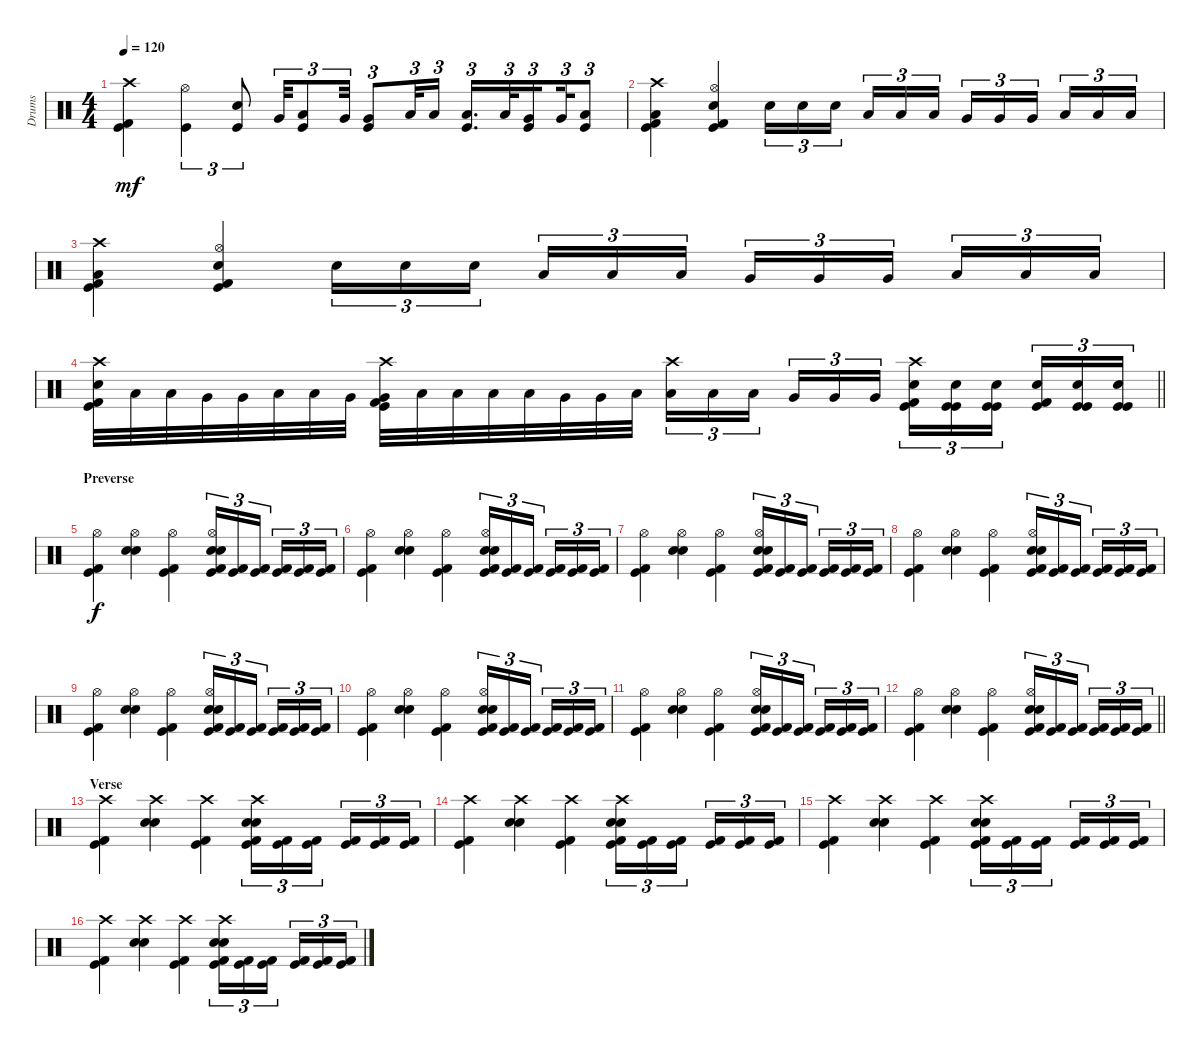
\track ("Drums" "Drums") {instrument percussion}
\staff {score}
\articulation defaults
\ts (4 4)
\tempo 120
\clef neutral
\ks c
("Crash high (hit)" "Kick (hit)" "Kick (hit) 2").4{dy mf} ("Hi-Hat (open)" "Kick (hit)").4{tu (3 2)} ("Electric Snare (hit)" "Kick (hit)").8{tu (3 2)} "Very Low Tom (hit)".32{tu (3 2)} ("Low Tom (hit)" "Kick (hit)").8{tu (3 2)} "Very Low Tom (hit)".32{tu (3 2)} ("Very Low Tom (hit)" "Kick (hit)").8{tu (3 2)} "Low Tom (hit)".32{tu (3 2)} "Low Floor Tom (hit)".16{tu (3 2)} ("Low Tom (hit)" "Kick (hit)").16{d tu (3 2)} "Low Floor Tom (hit)".32{tu (3 2)} ("Very Low Tom (hit)" "Kick (hit)").16{tu (3 2) beam splitsecondary} "Very Low Tom (hit)".32{tu (3 2)} ("Low Floor Tom (hit)" "Kick (hit)").8{tu (3 2)} |
("Crash high (hit)" "Low Floor Tom (hit)" "Kick (hit) 2" "Kick (hit)").4 ("Hi-Hat (open)" "Electric Snare (hit)" "Kick (hit)" "Kick (hit) 2").4 "Electric Snare (hit)".16{tu (3 2)} "Electric Snare (hit)".16{tu (3 2)} "Electric Snare (hit)".16{tu (3 2) beam splitsecondary} "Low Tom (hit)".16{tu (3 2)} "Low Tom (hit)".16{tu (3 2)} "Low Tom (hit)".16{tu (3 2)} "Very Low Tom (hit)".16{tu (3 2)} "Very Low Tom (hit)".16{tu (3 2)} "Very Low Tom (hit)".16{tu (3 2) beam splitsecondary} "Low Floor Tom (hit)".16{tu (3 2)} "Low Floor Tom (hit)".16{tu (3 2)} "Low Floor Tom (hit)".16{tu (3 2)} |
("Crash high (hit)" "Low Floor Tom (hit)" "Kick (hit) 2" "Kick (hit)").4 ("Hi-Hat (open)" "Electric Snare (hit)" "Kick (hit)" "Kick (hit) 2").4 "Electric Snare (hit)".16{tu (3 2)} "Electric Snare (hit)".16{tu (3 2)} "Electric Snare (hit)".16{tu (3 2) beam splitsecondary} "Low Tom (hit)".16{tu (3 2)} "Low Tom (hit)".16{tu (3 2)} "Low Tom (hit)".16{tu (3 2)} "Very Low Tom (hit)".16{tu (3 2)} "Very Low Tom (hit)".16{tu (3 2)} "Very Low Tom (hit)".16{tu (3 2) beam splitsecondary} "Low Floor Tom (hit)".16{tu (3 2)} "Low Floor Tom (hit)".16{tu (3 2)} "Low Floor Tom (hit)".16{tu (3 2)} |
\barLineRight lightlight
("Crash high (hit)" "Electric Snare (hit)" "Kick (hit)" "Kick (hit) 2").32 "Low Tom (hit)".32 "Low Tom (hit)".32 "Very Low Tom (hit)".32 "Very Low Tom (hit)".32 "Low Floor Tom (hit)".32 "Low Floor Tom (hit)".32 "Very Low Tom (hit)".32 ("Crash high (hit)" "Very Low Tom (hit)" "Kick (hit)" "Kick (hit) 2").32 "Low Floor Tom (hit)".32 "Low Floor Tom (hit)".32 "Low Tom (hit)".32 "Low Tom (hit)".32 "Very Low Tom (hit)".32 "Very Low Tom (hit)".32 "Low Floor Tom (hit)".32 ("Crash high (hit)" "Low Floor Tom (hit)").16{tu (3 2)} "Low Floor Tom (hit)".16{tu (3 2)} "Low Floor Tom (hit)".16{tu (3 2) beam splitsecondary} "Very Low Tom (hit)".16{tu (3 2)} "Very Low Tom (hit)".16{tu (3 2)} "Very Low Tom (hit)".16{tu (3 2)} ("Crash high (hit)" "Electric Snare (hit)" "Kick (hit)" "Kick (hit) 2").16{tu (3 2)} ("Electric Snare (hit)" "Kick (hit)" "Kick (hit)").16{tu (3 2)} ("Electric Snare (hit)" "Kick (hit)" "Kick (hit)").16{tu (3 2) beam splitsecondary} ("Electric Snare (hit)" "Kick (hit) 2" "Kick (hit)").16{tu (3 2)} ("Electric Snare (hit)" "Kick (hit)" "Kick (hit)").16{tu (3 2)} ("Electric Snare (hit)" "Kick (hit)" "Kick (hit)").16{tu (3 2)} |
\section ("" "Preverse")
("Hi-Hat (open)" "Kick (hit) 2" "Kick (hit)").4{dy f} ("Hi-Hat (open)" "Electric Snare (hit)" "Electric Snare (hit)").4 ("Hi-Hat (open)" "Kick (hit) 2" "Kick (hit)").4 ("Hi-Hat (open)" "Electric Snare (hit)" "Electric Snare (hit)" "Kick (hit)" "Kick (hit) 2").16{tu (3 2)} ("Kick (hit)" "Kick (hit) 2").16{tu (3 2)} ("Kick (hit)" "Kick (hit) 2").16{tu (3 2) beam splitsecondary} ("Kick (hit)" "Kick (hit) 2").16{tu (3 2)} ("Kick (hit)" "Kick (hit) 2").16{tu (3 2)} ("Kick (hit)" "Kick (hit) 2").16{tu (3 2)} |
("Hi-Hat (open)" "Kick (hit) 2" "Kick (hit)").4 ("Hi-Hat (open)" "Electric Snare (hit)" "Electric Snare (hit)").4 ("Hi-Hat (open)" "Kick (hit) 2" "Kick (hit)").4 ("Hi-Hat (open)" "Electric Snare (hit)" "Electric Snare (hit)" "Kick (hit)" "Kick (hit) 2").16{tu (3 2)} ("Kick (hit)" "Kick (hit) 2").16{tu (3 2)} ("Kick (hit)" "Kick (hit) 2").16{tu (3 2) beam splitsecondary} ("Kick (hit)" "Kick (hit) 2").16{tu (3 2)} ("Kick (hit)" "Kick (hit) 2").16{tu (3 2)} ("Kick (hit)" "Kick (hit) 2").16{tu (3 2)} |
("Hi-Hat (open)" "Kick (hit) 2" "Kick (hit)").4 ("Hi-Hat (open)" "Electric Snare (hit)" "Electric Snare (hit)").4 ("Hi-Hat (open)" "Kick (hit) 2" "Kick (hit)").4 ("Hi-Hat (open)" "Electric Snare (hit)" "Electric Snare (hit)" "Kick (hit)" "Kick (hit) 2").16{tu (3 2)} ("Kick (hit)" "Kick (hit) 2").16{tu (3 2)} ("Kick (hit)" "Kick (hit) 2").16{tu (3 2) beam splitsecondary} ("Kick (hit)" "Kick (hit) 2").16{tu (3 2)} ("Kick (hit)" "Kick (hit) 2").16{tu (3 2)} ("Kick (hit)" "Kick (hit) 2").16{tu (3 2)} |
("Hi-Hat (open)" "Kick (hit) 2" "Kick (hit)").4 ("Hi-Hat (open)" "Electric Snare (hit)" "Electric Snare (hit)").4 ("Hi-Hat (open)" "Kick (hit) 2" "Kick (hit)").4 ("Hi-Hat (open)" "Electric Snare (hit)" "Electric Snare (hit)" "Kick (hit)" "Kick (hit) 2").16{tu (3 2)} ("Kick (hit)" "Kick (hit) 2").16{tu (3 2)} ("Kick (hit)" "Kick (hit) 2").16{tu (3 2) beam splitsecondary} ("Kick (hit)" "Kick (hit) 2").16{tu (3 2)} ("Kick (hit)" "Kick (hit) 2").16{tu (3 2)} ("Kick (hit)" "Kick (hit) 2").16{tu (3 2)} |
("Hi-Hat (open)" "Kick (hit) 2" "Kick (hit)").4 ("Hi-Hat (open)" "Electric Snare (hit)" "Electric Snare (hit)").4 ("Hi-Hat (open)" "Kick (hit) 2" "Kick (hit)").4 ("Hi-Hat (open)" "Electric Snare (hit)" "Electric Snare (hit)" "Kick (hit)" "Kick (hit) 2").16{tu (3 2)} ("Kick (hit)" "Kick (hit) 2").16{tu (3 2)} ("Kick (hit)" "Kick (hit) 2").16{tu (3 2) beam splitsecondary} ("Kick (hit)" "Kick (hit) 2").16{tu (3 2)} ("Kick (hit)" "Kick (hit) 2").16{tu (3 2)} ("Kick (hit)" "Kick (hit) 2").16{tu (3 2)} |
("Hi-Hat (open)" "Kick (hit) 2" "Kick (hit)").4 ("Hi-Hat (open)" "Electric Snare (hit)" "Electric Snare (hit)").4 ("Hi-Hat (open)" "Kick (hit) 2" "Kick (hit)").4 ("Hi-Hat (open)" "Electric Snare (hit)" "Electric Snare (hit)" "Kick (hit)" "Kick (hit) 2").16{tu (3 2)} ("Kick (hit)" "Kick (hit) 2").16{tu (3 2)} ("Kick (hit)" "Kick (hit) 2").16{tu (3 2) beam splitsecondary} ("Kick (hit)" "Kick (hit) 2").16{tu (3 2)} ("Kick (hit)" "Kick (hit) 2").16{tu (3 2)} ("Kick (hit)" "Kick (hit) 2").16{tu (3 2)} |
("Hi-Hat (open)" "Kick (hit) 2" "Kick (hit)").4 ("Hi-Hat (open)" "Electric Snare (hit)" "Electric Snare (hit)").4 ("Hi-Hat (open)" "Kick (hit) 2" "Kick (hit)").4 ("Hi-Hat (open)" "Electric Snare (hit)" "Electric Snare (hit)" "Kick (hit)" "Kick (hit) 2").16{tu (3 2)} ("Kick (hit)" "Kick (hit) 2").16{tu (3 2)} ("Kick (hit)" "Kick (hit) 2").16{tu (3 2) beam splitsecondary} ("Kick (hit)" "Kick (hit) 2").16{tu (3 2)} ("Kick (hit)" "Kick (hit) 2").16{tu (3 2)} ("Kick (hit)" "Kick (hit) 2").16{tu (3 2)} |
\barLineRight lightlight
("Hi-Hat (open)" "Kick (hit) 2" "Kick (hit)").4 ("Hi-Hat (open)" "Electric Snare (hit)" "Electric Snare (hit)").4 ("Hi-Hat (open)" "Kick (hit) 2" "Kick (hit)").4 ("Hi-Hat (open)" "Electric Snare (hit)" "Electric Snare (hit)" "Kick (hit)" "Kick (hit) 2").16{tu (3 2)} ("Kick (hit)" "Kick (hit) 2").16{tu (3 2)} ("Kick (hit)" "Kick (hit) 2").16{tu (3 2) beam splitsecondary} ("Kick (hit)" "Kick (hit) 2").16{tu (3 2)} ("Kick (hit)" "Kick (hit) 2").16{tu (3 2)} ("Kick (hit)" "Kick (hit) 2").16{tu (3 2)} |
\section ("" "Verse")
("Crash high (hit)" "Kick (hit) 2" "Kick (hit)").4 ("Crash high (hit)" "Electric Snare (hit)" "Electric Snare (hit)").4 ("Crash high (hit)" "Kick (hit) 2" "Kick (hit)").4 ("Crash high (hit)" "Electric Snare (hit)" "Electric Snare (hit)" "Kick (hit)" "Kick (hit) 2").16{tu (3 2)} ("Kick (hit)" "Kick (hit) 2").16{tu (3 2)} ("Kick (hit)" "Kick (hit) 2").16{tu (3 2) beam splitsecondary} ("Kick (hit)" "Kick (hit) 2").16{tu (3 2)} ("Kick (hit)" "Kick (hit) 2").16{tu (3 2)} ("Kick (hit)" "Kick (hit) 2").16{tu (3 2)} |
("Crash high (hit)" "Kick (hit) 2" "Kick (hit)").4 ("Crash high (hit)" "Electric Snare (hit)" "Electric Snare (hit)").4 ("Crash high (hit)" "Kick (hit) 2" "Kick (hit)").4 ("Crash high (hit)" "Electric Snare (hit)" "Electric Snare (hit)" "Kick (hit)" "Kick (hit) 2").16{tu (3 2)} ("Kick (hit)" "Kick (hit) 2").16{tu (3 2)} ("Kick (hit)" "Kick (hit) 2").16{tu (3 2) beam splitsecondary} ("Kick (hit)" "Kick (hit) 2").16{tu (3 2)} ("Kick (hit)" "Kick (hit) 2").16{tu (3 2)} ("Kick (hit)" "Kick (hit) 2").16{tu (3 2)} |
("Crash high (hit)" "Kick (hit) 2" "Kick (hit)").4 ("Crash high (hit)" "Electric Snare (hit)" "Electric Snare (hit)").4 ("Crash high (hit)" "Kick (hit) 2" "Kick (hit)").4 ("Crash high (hit)" "Electric Snare (hit)" "Electric Snare (hit)" "Kick (hit)" "Kick (hit) 2").16{tu (3 2)} ("Kick (hit)" "Kick (hit) 2").16{tu (3 2)} ("Kick (hit)" "Kick (hit) 2").16{tu (3 2) beam splitsecondary} ("Kick (hit)" "Kick (hit) 2").16{tu (3 2)} ("Kick (hit)" "Kick (hit) 2").16{tu (3 2)} ("Kick (hit)" "Kick (hit) 2").16{tu (3 2)} |
("Crash high (hit)" "Kick (hit) 2" "Kick (hit)").4 ("Crash high (hit)" "Electric Snare (hit)" "Electric Snare (hit)").4 ("Crash high (hit)" "Kick (hit) 2" "Kick (hit)").4 ("Crash high (hit)" "Electric Snare (hit)" "Electric Snare (hit)" "Kick (hit)" "Kick (hit) 2").16{tu (3 2)} ("Kick (hit)" "Kick (hit) 2").16{tu (3 2)} ("Kick (hit)" "Kick (hit) 2").16{tu (3 2) beam splitsecondary} ("Kick (hit)" "Kick (hit) 2").16{tu (3 2)} ("Kick (hit)" "Kick (hit) 2").16{tu (3 2)} ("Kick (hit)" "Kick (hit) 2").16{tu (3 2)}
